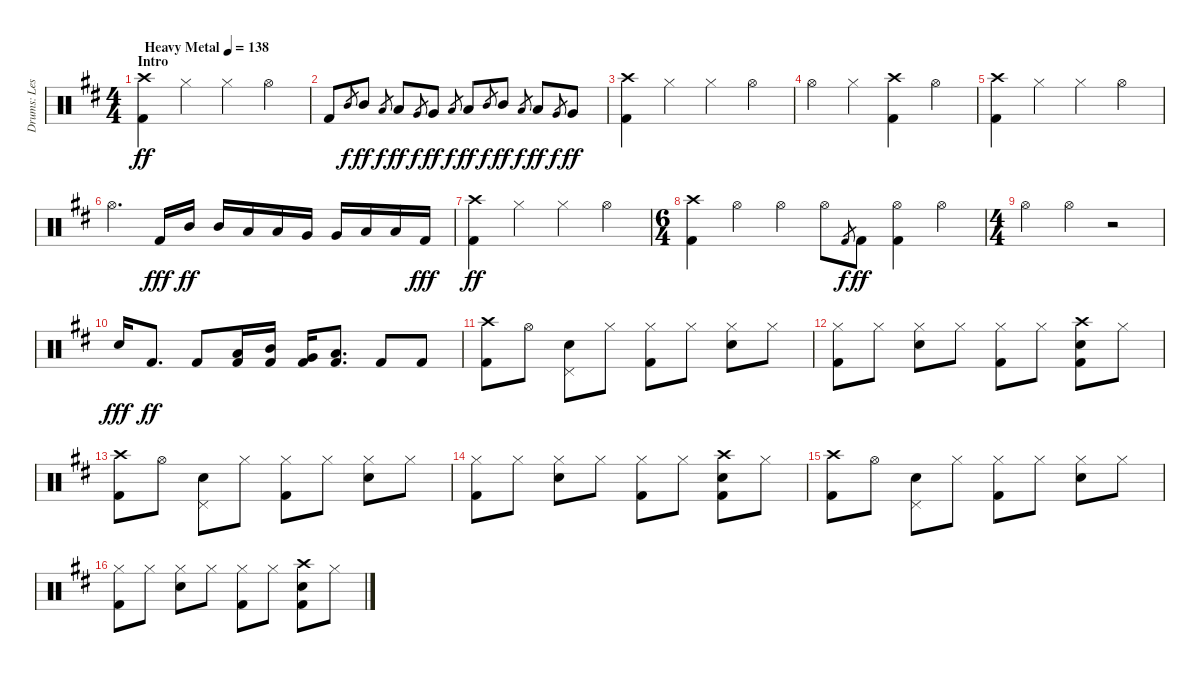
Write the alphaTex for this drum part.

\track ("Drums: Les" "Drums: Les") {instrument percussion}
\staff {score}
\articulation defaults
\ts (4 4)
\section ("" "Intro")
\tempo (138 "Heavy Metal")
\clef neutral
\ks d
("Crash high (hit)" "Kick (hit) 2").4{dy ff} "Hi-Hat (closed)".4 "Hi-Hat (closed)".4 "Hi-Hat (open)".4 |
"Kick (hit) 2".8 "Mid Tom (hit)".8{gr dy f} "Mid Tom (hit)".8{dy ff} "Low Tom (hit)".8{gr dy f} "Low Tom (hit)".8{dy ff} "Very Low Tom (hit)".8{gr dy f} "Very Low Tom (hit)".8{dy ff} "Low Floor Tom (hit)".8{gr dy f} "Low Floor Tom (hit)".8{dy ff} "Mid Tom (hit)".8{gr dy f} "Mid Tom (hit)".8{dy ff} "Low Tom (hit)".8{gr dy f} "Low Tom (hit)".8{dy ff} "Very Low Tom (hit)".8{gr dy f} "Very Low Tom (hit)".8{dy ff} |
("Crash high (hit)" "Kick (hit) 2").4 "Hi-Hat (closed)".4 "Hi-Hat (closed)".4 "Hi-Hat (open)".4 |
"Hi-Hat (open)".4 "Hi-Hat (closed)".4 ("Crash high (hit)" "Kick (hit) 2").4 "Hi-Hat (open)".4 |
("Crash high (hit)" "Kick (hit) 2").4 "Hi-Hat (closed)".4 "Hi-Hat (closed)".4 "Hi-Hat (open)".4 |
"Hi-Hat (open)".4{d} "Kick (hit) 2".16{dy fff} "Mid Tom (hit)".16{dy ff} "Mid Tom (hit)".16 "Low Tom (hit)".16 "Low Tom (hit)".16 "Very Low Tom (hit)".16 "Very Low Tom (hit)".16 "Low Floor Tom (hit)".16 "Low Floor Tom (hit)".16 "Kick (hit) 2".16{dy fff} |
("Crash high (hit)" "Kick (hit) 2").4{dy ff} "Hi-Hat (closed)".4 "Hi-Hat (closed)".4 "Hi-Hat (open)".4 |
\ts (6 4)
("Crash high (hit)" "Kick (hit) 2").4 "Hi-Hat (open)".4 "Hi-Hat (open)".4 "Hi-Hat (open)".8 "Kick (hit) 2".8{gr dy f} "Kick (hit) 2".8{dy ff} ("Hi-Hat (open)" "Kick (hit) 2").4 "Hi-Hat (open)".4 |
\ts (4 4)
"Hi-Hat (open)".4 "Hi-Hat (open)".4 r.2 |
"Snare (hit) 2".16{dy fff} "Kick (hit) 2".8{d dy ff} "Kick (hit) 2".8 ("Low Tom (hit)" "Kick (hit) 2").16 ("Mid Tom (hit)" "Kick (hit) 2").16 ("Very Low Tom (hit)" "Kick (hit) 2").16 ("Low Floor Tom (hit)" "Kick (hit) 2").8{d} "Kick (hit) 2".8 "Kick (hit) 2".8 |
("Crash high (hit)" "Kick (hit) 2").8 "Hi-Hat (open)".8 ("Pedal Hi-Hat (hit)" "Snare (hit) 2").8 "Hi-Hat (closed)".8 ("Hi-Hat (closed)" "Kick (hit) 2").8 "Hi-Hat (closed)".8 ("Hi-Hat (closed)" "Snare (hit) 2").8 "Hi-Hat (closed)".8 |
("Hi-Hat (closed)" "Kick (hit) 2").8 "Hi-Hat (closed)".8 ("Hi-Hat (closed)" "Snare (hit) 2").8 "Hi-Hat (closed)".8 ("Hi-Hat (closed)" "Kick (hit) 2").8 "Hi-Hat (closed)".8 ("Crash high (hit)" "Snare (hit) 2" "Kick (hit) 2").8 "Hi-Hat (closed)".8 |
("Crash high (hit)" "Kick (hit) 2").8 "Hi-Hat (open)".8 ("Pedal Hi-Hat (hit)" "Snare (hit) 2").8 "Hi-Hat (closed)".8 ("Hi-Hat (closed)" "Kick (hit) 2").8 "Hi-Hat (closed)".8 ("Hi-Hat (closed)" "Snare (hit) 2").8 "Hi-Hat (closed)".8 |
("Hi-Hat (closed)" "Kick (hit) 2").8 "Hi-Hat (closed)".8 ("Hi-Hat (closed)" "Snare (hit) 2").8 "Hi-Hat (closed)".8 ("Hi-Hat (closed)" "Kick (hit) 2").8 "Hi-Hat (closed)".8 ("Crash high (hit)" "Snare (hit) 2" "Kick (hit) 2").8 "Hi-Hat (closed)".8 |
("Crash high (hit)" "Kick (hit) 2").8 "Hi-Hat (open)".8 ("Pedal Hi-Hat (hit)" "Snare (hit) 2").8 "Hi-Hat (closed)".8 ("Hi-Hat (closed)" "Kick (hit) 2").8 "Hi-Hat (closed)".8 ("Hi-Hat (closed)" "Snare (hit) 2").8 "Hi-Hat (closed)".8 |
("Hi-Hat (closed)" "Kick (hit) 2").8 "Hi-Hat (closed)".8 ("Hi-Hat (closed)" "Snare (hit) 2").8 "Hi-Hat (closed)".8 ("Hi-Hat (closed)" "Kick (hit) 2").8 "Hi-Hat (closed)".8 ("Crash high (hit)" "Snare (hit) 2" "Kick (hit) 2").8 "Hi-Hat (closed)".8
